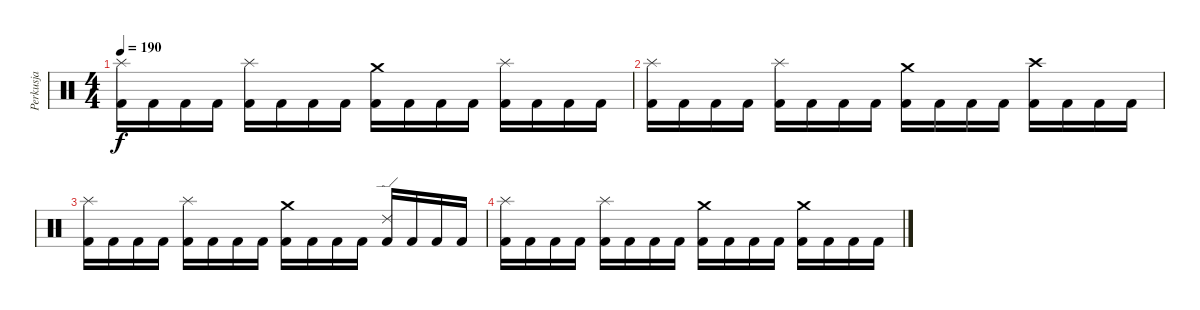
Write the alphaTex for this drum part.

\track ("Perkusja" "Perkusja") {instrument percussion}
\staff {score}
\articulation defaults
\ts (4 4)
\tempo 190
\clef neutral
\ks c
("Splash (hit)" "Kick (hit) 2").16{dy f} "Kick (hit) 2".16 "Kick (hit) 2".16 "Kick (hit) 2".16 ("Splash (hit)" "Kick (hit) 2").16 "Kick (hit) 2".16 "Kick (hit) 2".16 "Kick (hit) 2".16 ("Crash medium (hit)" "Kick (hit) 2").16 "Kick (hit) 2".16 "Kick (hit) 2".16 "Kick (hit) 2".16 ("Splash (hit)" "Kick (hit) 2").16 "Kick (hit) 2".16 "Kick (hit) 2".16 "Kick (hit) 2".16 |
("Splash (hit)" "Kick (hit) 2").16 "Kick (hit) 2".16 "Kick (hit) 2".16 "Kick (hit) 2".16 ("Splash (hit)" "Kick (hit) 2").16 "Kick (hit) 2".16 "Kick (hit) 2".16 "Kick (hit) 2".16 ("Crash medium (hit)" "Kick (hit) 2").16 "Kick (hit) 2".16 "Kick (hit) 2".16 "Kick (hit) 2".16 ("Crash high (hit)" "Kick (hit) 2").16 "Kick (hit) 2".16 "Kick (hit) 2".16 "Kick (hit) 2".16 |
("Splash (hit)" "Kick (hit) 2").16 "Kick (hit) 2".16 "Kick (hit) 2".16 "Kick (hit) 2".16 ("Splash (hit)" "Kick (hit) 2").16 "Kick (hit) 2".16 "Kick (hit) 2".16 "Kick (hit) 2".16 ("Crash medium (hit)" "Kick (hit) 2").16 "Kick (hit) 2".16 "Kick (hit) 2".16 "Kick (hit) 2".16 ("Ride (edge) 2" "Kick (hit) 2").16 "Kick (hit) 2".16 "Kick (hit) 2".16 "Kick (hit) 2".16 |
("Splash (hit)" "Kick (hit) 2").16 "Kick (hit) 2".16 "Kick (hit) 2".16 "Kick (hit) 2".16 ("Splash (hit)" "Kick (hit) 2").16 "Kick (hit) 2".16 "Kick (hit) 2".16 "Kick (hit) 2".16 ("Crash medium (hit)" "Kick (hit) 2").16 "Kick (hit) 2".16 "Kick (hit) 2".16 "Kick (hit) 2".16 ("Crash medium (hit)" "Kick (hit) 2").16 "Kick (hit) 2".16 "Kick (hit) 2".16 "Kick (hit) 2".16
